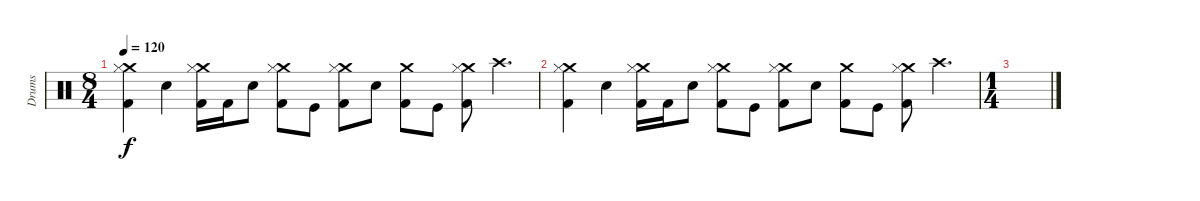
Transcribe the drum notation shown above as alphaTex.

\track ("Drums" "Drums") {instrument percussion}
\staff {score}
\articulation defaults
\ts (8 4)
\tempo 120
\clef neutral
\ks c
("Crash medium (hit)" "Hi-Hat (closed)" "Kick (hit) 2").4{dy f} "Snare (hit) 2".4 ("Crash medium (hit)" "Hi-Hat (closed)" "Kick (hit) 2").16 "Kick (hit) 2".16 "Snare (hit) 2".8 ("Crash medium (hit)" "Hi-Hat (closed)" "Kick (hit) 2").8 "Kick (hit)".8 ("Crash medium (hit)" "Hi-Hat (closed)" "Kick (hit) 2").8 "Snare (hit) 2".8 ("Crash medium (hit)" "Kick (hit) 2").8 "Kick (hit)".8 ("Crash medium (hit)" "Hi-Hat (closed)" "Kick (hit) 2").8 "Crash high (hit)".4{d} |
("Crash medium (hit)" "Hi-Hat (closed)" "Kick (hit) 2").4 "Snare (hit) 2".4 ("Crash medium (hit)" "Hi-Hat (closed)" "Kick (hit) 2").16 "Kick (hit) 2".16 "Snare (hit) 2".8 ("Crash medium (hit)" "Hi-Hat (closed)" "Kick (hit) 2").8 "Kick (hit)".8 ("Crash medium (hit)" "Hi-Hat (closed)" "Kick (hit) 2").8 "Snare (hit) 2".8 ("Crash medium (hit)" "Kick (hit) 2").8 "Kick (hit)".8 ("Crash medium (hit)" "Hi-Hat (closed)" "Kick (hit) 2").8 "Crash high (hit)".4{d} |
\ts (1 4)
